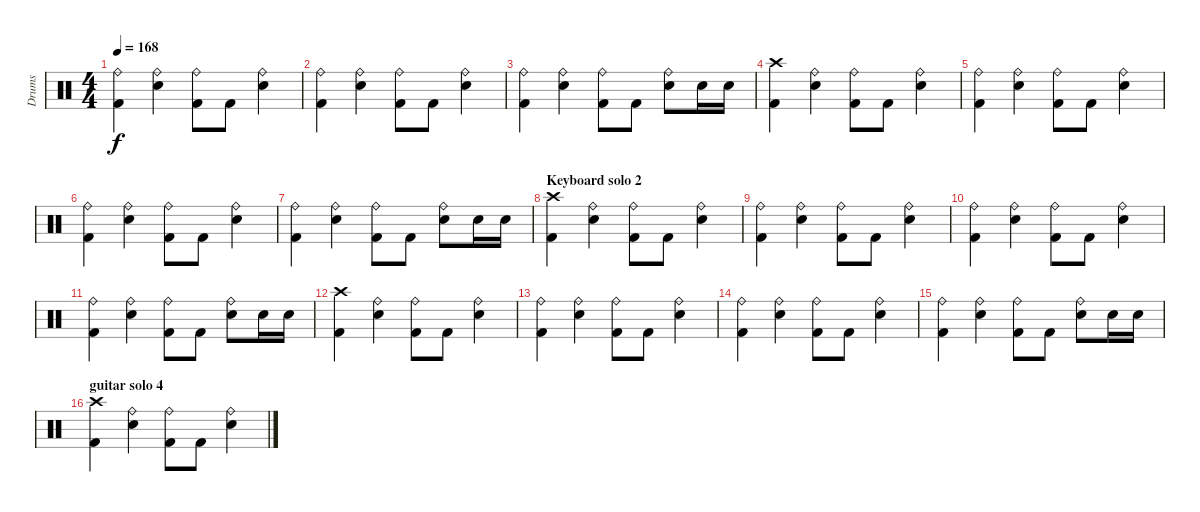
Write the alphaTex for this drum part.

\track ("Drums" "Drums") {instrument percussion}
\staff {score}
\articulation defaults
\ts (4 4)
\tempo 168
\clef neutral
\ks c
("Ride (bell)" "Kick (hit) 2").4{dy f} ("Ride (bell)" "Electric Snare (hit)").4 ("Ride (bell)" "Kick (hit) 2").8 "Kick (hit) 2".8 ("Ride (bell)" "Electric Snare (hit)").4 |
("Ride (bell)" "Kick (hit) 2").4 ("Ride (bell)" "Electric Snare (hit)").4 ("Ride (bell)" "Kick (hit) 2").8 "Kick (hit) 2".8 ("Ride (bell)" "Electric Snare (hit)").4 |
("Ride (bell)" "Kick (hit) 2").4 ("Ride (bell)" "Electric Snare (hit)").4 ("Ride (bell)" "Kick (hit) 2").8 "Kick (hit) 2".8 ("Ride (bell)" "Electric Snare (hit)").8 "Electric Snare (hit)".16 "Electric Snare (hit)".16 |
("Crash high (hit)" "Kick (hit) 2").4 ("Ride (bell)" "Electric Snare (hit)").4 ("Ride (bell)" "Kick (hit) 2").8 "Kick (hit) 2".8 ("Ride (bell)" "Electric Snare (hit)").4 |
("Ride (bell)" "Kick (hit) 2").4 ("Ride (bell)" "Electric Snare (hit)").4 ("Ride (bell)" "Kick (hit) 2").8 "Kick (hit) 2".8 ("Ride (bell)" "Electric Snare (hit)").4 |
("Ride (bell)" "Kick (hit) 2").4 ("Ride (bell)" "Electric Snare (hit)").4 ("Ride (bell)" "Kick (hit) 2").8 "Kick (hit) 2".8 ("Ride (bell)" "Electric Snare (hit)").4 |
("Ride (bell)" "Kick (hit) 2").4 ("Ride (bell)" "Electric Snare (hit)").4 ("Ride (bell)" "Kick (hit) 2").8 "Kick (hit) 2".8 ("Ride (bell)" "Electric Snare (hit)").8 "Electric Snare (hit)".16 "Electric Snare (hit)".16 |
\section ("" "Keyboard solo 2")
("Crash high (hit)" "Kick (hit) 2").4 ("Ride (bell)" "Electric Snare (hit)").4 ("Ride (bell)" "Kick (hit) 2").8 "Kick (hit) 2".8 ("Ride (bell)" "Electric Snare (hit)").4 |
("Ride (bell)" "Kick (hit) 2").4 ("Ride (bell)" "Electric Snare (hit)").4 ("Ride (bell)" "Kick (hit) 2").8 "Kick (hit) 2".8 ("Ride (bell)" "Electric Snare (hit)").4 |
("Ride (bell)" "Kick (hit) 2").4 ("Ride (bell)" "Electric Snare (hit)").4 ("Ride (bell)" "Kick (hit) 2").8 "Kick (hit) 2".8 ("Ride (bell)" "Electric Snare (hit)").4 |
("Ride (bell)" "Kick (hit) 2").4 ("Ride (bell)" "Electric Snare (hit)").4 ("Ride (bell)" "Kick (hit) 2").8 "Kick (hit) 2".8 ("Ride (bell)" "Electric Snare (hit)").8 "Electric Snare (hit)".16 "Electric Snare (hit)".16 |
("Crash high (hit)" "Kick (hit) 2").4 ("Ride (bell)" "Electric Snare (hit)").4 ("Ride (bell)" "Kick (hit) 2").8 "Kick (hit) 2".8 ("Ride (bell)" "Electric Snare (hit)").4 |
("Ride (bell)" "Kick (hit) 2").4 ("Ride (bell)" "Electric Snare (hit)").4 ("Ride (bell)" "Kick (hit) 2").8 "Kick (hit) 2".8 ("Ride (bell)" "Electric Snare (hit)").4 |
("Ride (bell)" "Kick (hit) 2").4 ("Ride (bell)" "Electric Snare (hit)").4 ("Ride (bell)" "Kick (hit) 2").8 "Kick (hit) 2".8 ("Ride (bell)" "Electric Snare (hit)").4 |
("Ride (bell)" "Kick (hit) 2").4 ("Ride (bell)" "Electric Snare (hit)").4 ("Ride (bell)" "Kick (hit) 2").8 "Kick (hit) 2".8 ("Ride (bell)" "Electric Snare (hit)").8 "Electric Snare (hit)".16 "Electric Snare (hit)".16 |
\section ("" "guitar solo 4")
("Crash high (hit)" "Kick (hit) 2").4 ("Ride (bell)" "Electric Snare (hit)").4 ("Ride (bell)" "Kick (hit) 2").8 "Kick (hit) 2".8 ("Ride (bell)" "Electric Snare (hit)").4
